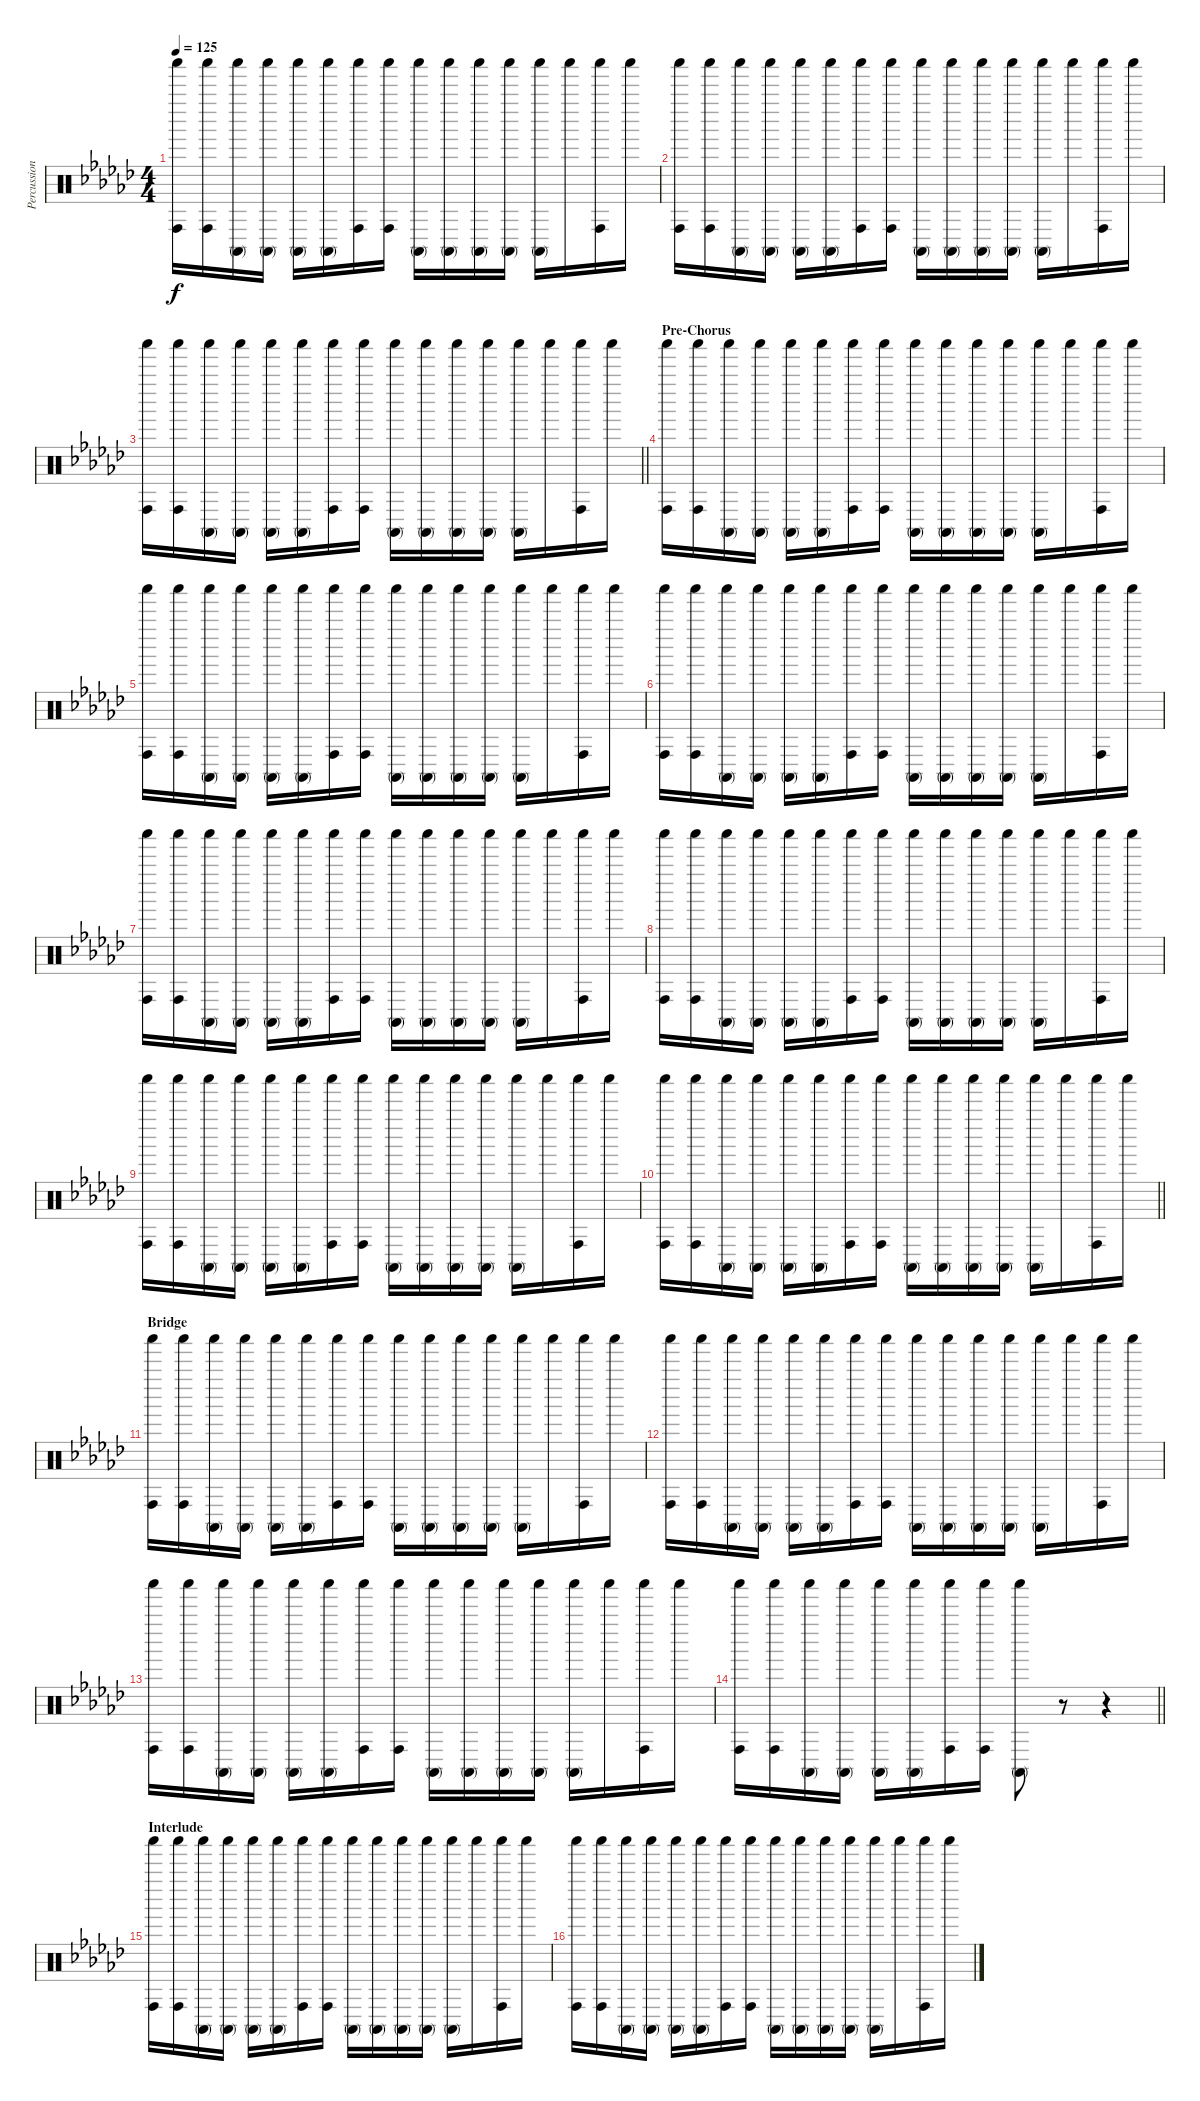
\track ("Percussion" "Percussion") {instrument percussion}
\staff {score}
\articulation defaults
\ts (4 4)
\tempo 125
\clef neutral
\ks gb
("Shaker (hit)" "Conga high (hit)").16{dy f} ("Shaker (hit)" "Conga high (hit)").16 ("Shaker (hit)" "Conga high (mute)").16 ("Shaker (hit)" "Conga high (mute)").16 ("Shaker (hit)" "Conga high (mute)").16 ("Shaker (hit)" "Conga high (mute)").16 ("Shaker (hit)" "Conga high (hit)").16 ("Shaker (hit)" "Conga high (hit)").16 ("Shaker (hit)" "Conga high (mute)").16 ("Shaker (hit)" "Conga high (mute)").16 ("Shaker (hit)" "Conga high (mute)").16 ("Shaker (hit)" "Conga high (mute)").16 ("Shaker (hit)" "Conga high (mute)").16 "Shaker (hit)".16 ("Shaker (hit)" "Conga high (hit)").16 "Shaker (hit)".16 |
("Shaker (hit)" "Conga high (hit)").16 ("Shaker (hit)" "Conga high (hit)").16 ("Shaker (hit)" "Conga high (mute)").16 ("Shaker (hit)" "Conga high (mute)").16 ("Shaker (hit)" "Conga high (mute)").16 ("Shaker (hit)" "Conga high (mute)").16 ("Shaker (hit)" "Conga high (hit)").16 ("Shaker (hit)" "Conga high (hit)").16 ("Shaker (hit)" "Conga high (mute)").16 ("Shaker (hit)" "Conga high (mute)").16 ("Shaker (hit)" "Conga high (mute)").16 ("Shaker (hit)" "Conga high (mute)").16 ("Shaker (hit)" "Conga high (mute)").16 "Shaker (hit)".16 ("Shaker (hit)" "Conga high (hit)").16 "Shaker (hit)".16 |
\barLineRight lightlight
("Shaker (hit)" "Conga high (hit)").16 ("Shaker (hit)" "Conga high (hit)").16 ("Shaker (hit)" "Conga high (mute)").16 ("Shaker (hit)" "Conga high (mute)").16 ("Shaker (hit)" "Conga high (mute)").16 ("Shaker (hit)" "Conga high (mute)").16 ("Shaker (hit)" "Conga high (hit)").16 ("Shaker (hit)" "Conga high (hit)").16 ("Shaker (hit)" "Conga high (mute)").16 ("Shaker (hit)" "Conga high (mute)").16 ("Shaker (hit)" "Conga high (mute)").16 ("Shaker (hit)" "Conga high (mute)").16 ("Shaker (hit)" "Conga high (mute)").16 "Shaker (hit)".16 ("Shaker (hit)" "Conga high (hit)").16 "Shaker (hit)".16 |
\section ("" "Pre-Chorus")
("Shaker (hit)" "Conga high (hit)").16 ("Shaker (hit)" "Conga high (hit)").16 ("Shaker (hit)" "Conga high (mute)").16 ("Shaker (hit)" "Conga high (mute)").16 ("Shaker (hit)" "Conga high (mute)").16 ("Shaker (hit)" "Conga high (mute)").16 ("Shaker (hit)" "Conga high (hit)").16 ("Shaker (hit)" "Conga high (hit)").16 ("Shaker (hit)" "Conga high (mute)").16 ("Shaker (hit)" "Conga high (mute)").16 ("Shaker (hit)" "Conga high (mute)").16 ("Shaker (hit)" "Conga high (mute)").16 ("Shaker (hit)" "Conga high (mute)").16 "Shaker (hit)".16 ("Shaker (hit)" "Conga high (hit)").16 "Shaker (hit)".16 |
("Shaker (hit)" "Conga high (hit)").16 ("Shaker (hit)" "Conga high (hit)").16 ("Shaker (hit)" "Conga high (mute)").16 ("Shaker (hit)" "Conga high (mute)").16 ("Shaker (hit)" "Conga high (mute)").16 ("Shaker (hit)" "Conga high (mute)").16 ("Shaker (hit)" "Conga high (hit)").16 ("Shaker (hit)" "Conga high (hit)").16 ("Shaker (hit)" "Conga high (mute)").16 ("Shaker (hit)" "Conga high (mute)").16 ("Shaker (hit)" "Conga high (mute)").16 ("Shaker (hit)" "Conga high (mute)").16 ("Shaker (hit)" "Conga high (mute)").16 "Shaker (hit)".16 ("Shaker (hit)" "Conga high (hit)").16 "Shaker (hit)".16 |
("Shaker (hit)" "Conga high (hit)").16 ("Shaker (hit)" "Conga high (hit)").16 ("Shaker (hit)" "Conga high (mute)").16 ("Shaker (hit)" "Conga high (mute)").16 ("Shaker (hit)" "Conga high (mute)").16 ("Shaker (hit)" "Conga high (mute)").16 ("Shaker (hit)" "Conga high (hit)").16 ("Shaker (hit)" "Conga high (hit)").16 ("Shaker (hit)" "Conga high (mute)").16 ("Shaker (hit)" "Conga high (mute)").16 ("Shaker (hit)" "Conga high (mute)").16 ("Shaker (hit)" "Conga high (mute)").16 ("Shaker (hit)" "Conga high (mute)").16 "Shaker (hit)".16 ("Shaker (hit)" "Conga high (hit)").16 "Shaker (hit)".16 |
("Shaker (hit)" "Conga high (hit)").16 ("Shaker (hit)" "Conga high (hit)").16 ("Shaker (hit)" "Conga high (mute)").16 ("Shaker (hit)" "Conga high (mute)").16 ("Shaker (hit)" "Conga high (mute)").16 ("Shaker (hit)" "Conga high (mute)").16 ("Shaker (hit)" "Conga high (hit)").16 ("Shaker (hit)" "Conga high (hit)").16 ("Shaker (hit)" "Conga high (mute)").16 ("Shaker (hit)" "Conga high (mute)").16 ("Shaker (hit)" "Conga high (mute)").16 ("Shaker (hit)" "Conga high (mute)").16 ("Shaker (hit)" "Conga high (mute)").16 "Shaker (hit)".16 ("Shaker (hit)" "Conga high (hit)").16 "Shaker (hit)".16 |
("Shaker (hit)" "Conga high (hit)").16 ("Shaker (hit)" "Conga high (hit)").16 ("Shaker (hit)" "Conga high (mute)").16 ("Shaker (hit)" "Conga high (mute)").16 ("Shaker (hit)" "Conga high (mute)").16 ("Shaker (hit)" "Conga high (mute)").16 ("Shaker (hit)" "Conga high (hit)").16 ("Shaker (hit)" "Conga high (hit)").16 ("Shaker (hit)" "Conga high (mute)").16 ("Shaker (hit)" "Conga high (mute)").16 ("Shaker (hit)" "Conga high (mute)").16 ("Shaker (hit)" "Conga high (mute)").16 ("Shaker (hit)" "Conga high (mute)").16 "Shaker (hit)".16 ("Shaker (hit)" "Conga high (hit)").16 "Shaker (hit)".16 |
("Shaker (hit)" "Conga high (hit)").16 ("Shaker (hit)" "Conga high (hit)").16 ("Shaker (hit)" "Conga high (mute)").16 ("Shaker (hit)" "Conga high (mute)").16 ("Shaker (hit)" "Conga high (mute)").16 ("Shaker (hit)" "Conga high (mute)").16 ("Shaker (hit)" "Conga high (hit)").16 ("Shaker (hit)" "Conga high (hit)").16 ("Shaker (hit)" "Conga high (mute)").16 ("Shaker (hit)" "Conga high (mute)").16 ("Shaker (hit)" "Conga high (mute)").16 ("Shaker (hit)" "Conga high (mute)").16 ("Shaker (hit)" "Conga high (mute)").16 "Shaker (hit)".16 ("Shaker (hit)" "Conga high (hit)").16 "Shaker (hit)".16 |
\barLineRight lightlight
("Shaker (hit)" "Conga high (hit)").16 ("Shaker (hit)" "Conga high (hit)").16 ("Shaker (hit)" "Conga high (mute)").16 ("Shaker (hit)" "Conga high (mute)").16 ("Shaker (hit)" "Conga high (mute)").16 ("Shaker (hit)" "Conga high (mute)").16 ("Shaker (hit)" "Conga high (hit)").16 ("Shaker (hit)" "Conga high (hit)").16 ("Shaker (hit)" "Conga high (mute)").16 ("Shaker (hit)" "Conga high (mute)").16 ("Shaker (hit)" "Conga high (mute)").16 ("Shaker (hit)" "Conga high (mute)").16 ("Shaker (hit)" "Conga high (mute)").16 "Shaker (hit)".16 ("Shaker (hit)" "Conga high (hit)").16 "Shaker (hit)".16 |
\section ("" "Bridge")
("Shaker (hit)" "Conga high (hit)").16 ("Shaker (hit)" "Conga high (hit)").16 ("Shaker (hit)" "Conga high (mute)").16 ("Shaker (hit)" "Conga high (mute)").16 ("Shaker (hit)" "Conga high (mute)").16 ("Shaker (hit)" "Conga high (mute)").16 ("Shaker (hit)" "Conga high (hit)").16 ("Shaker (hit)" "Conga high (hit)").16 ("Shaker (hit)" "Conga high (mute)").16 ("Shaker (hit)" "Conga high (mute)").16 ("Shaker (hit)" "Conga high (mute)").16 ("Shaker (hit)" "Conga high (mute)").16 ("Shaker (hit)" "Conga high (mute)").16 "Shaker (hit)".16 ("Shaker (hit)" "Conga high (hit)").16 "Shaker (hit)".16 |
("Shaker (hit)" "Conga high (hit)").16 ("Shaker (hit)" "Conga high (hit)").16 ("Shaker (hit)" "Conga high (mute)").16 ("Shaker (hit)" "Conga high (mute)").16 ("Shaker (hit)" "Conga high (mute)").16 ("Shaker (hit)" "Conga high (mute)").16 ("Shaker (hit)" "Conga high (hit)").16 ("Shaker (hit)" "Conga high (hit)").16 ("Shaker (hit)" "Conga high (mute)").16 ("Shaker (hit)" "Conga high (mute)").16 ("Shaker (hit)" "Conga high (mute)").16 ("Shaker (hit)" "Conga high (mute)").16 ("Shaker (hit)" "Conga high (mute)").16 "Shaker (hit)".16 ("Shaker (hit)" "Conga high (hit)").16 "Shaker (hit)".16 |
("Shaker (hit)" "Conga high (hit)").16 ("Shaker (hit)" "Conga high (hit)").16 ("Shaker (hit)" "Conga high (mute)").16 ("Shaker (hit)" "Conga high (mute)").16 ("Shaker (hit)" "Conga high (mute)").16 ("Shaker (hit)" "Conga high (mute)").16 ("Shaker (hit)" "Conga high (hit)").16 ("Shaker (hit)" "Conga high (hit)").16 ("Shaker (hit)" "Conga high (mute)").16 ("Shaker (hit)" "Conga high (mute)").16 ("Shaker (hit)" "Conga high (mute)").16 ("Shaker (hit)" "Conga high (mute)").16 ("Shaker (hit)" "Conga high (mute)").16 "Shaker (hit)".16 ("Shaker (hit)" "Conga high (hit)").16 "Shaker (hit)".16 |
\barLineRight lightlight
("Shaker (hit)" "Conga high (hit)").16 ("Shaker (hit)" "Conga high (hit)").16 ("Shaker (hit)" "Conga high (mute)").16 ("Shaker (hit)" "Conga high (mute)").16 ("Shaker (hit)" "Conga high (mute)").16 ("Shaker (hit)" "Conga high (mute)").16 ("Shaker (hit)" "Conga high (hit)").16 ("Shaker (hit)" "Conga high (hit)").16 ("Shaker (hit)" "Conga high (mute)").8 r.8 r.4 |
\section ("" "Interlude")
("Shaker (hit)" "Conga high (hit)").16 ("Shaker (hit)" "Conga high (hit)").16 ("Shaker (hit)" "Conga high (mute)").16 ("Shaker (hit)" "Conga high (mute)").16 ("Shaker (hit)" "Conga high (mute)").16 ("Shaker (hit)" "Conga high (mute)").16 ("Shaker (hit)" "Conga high (hit)").16 ("Shaker (hit)" "Conga high (hit)").16 ("Shaker (hit)" "Conga high (mute)").16 ("Shaker (hit)" "Conga high (mute)").16 ("Shaker (hit)" "Conga high (mute)").16 ("Shaker (hit)" "Conga high (mute)").16 ("Shaker (hit)" "Conga high (mute)").16 "Shaker (hit)".16 ("Shaker (hit)" "Conga high (hit)").16 "Shaker (hit)".16 |
("Shaker (hit)" "Conga high (hit)").16 ("Shaker (hit)" "Conga high (hit)").16 ("Shaker (hit)" "Conga high (mute)").16 ("Shaker (hit)" "Conga high (mute)").16 ("Shaker (hit)" "Conga high (mute)").16 ("Shaker (hit)" "Conga high (mute)").16 ("Shaker (hit)" "Conga high (hit)").16 ("Shaker (hit)" "Conga high (hit)").16 ("Shaker (hit)" "Conga high (mute)").16 ("Shaker (hit)" "Conga high (mute)").16 ("Shaker (hit)" "Conga high (mute)").16 ("Shaker (hit)" "Conga high (mute)").16 ("Shaker (hit)" "Conga high (mute)").16 "Shaker (hit)".16 ("Shaker (hit)" "Conga high (hit)").16 "Shaker (hit)".16
